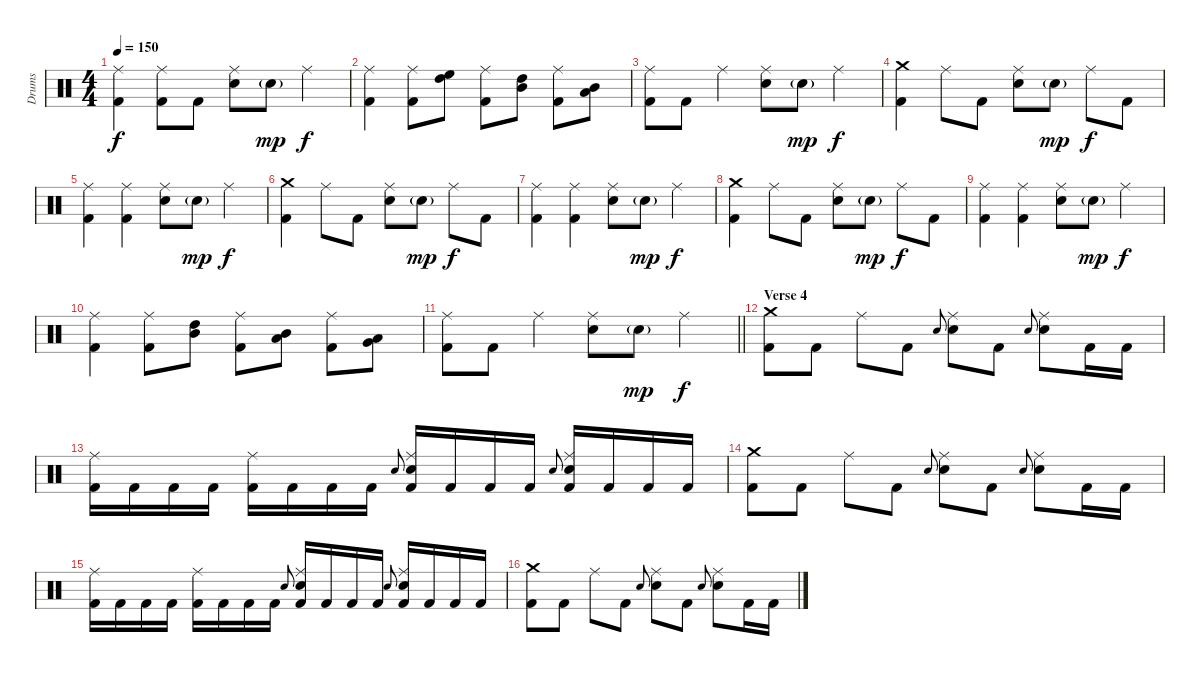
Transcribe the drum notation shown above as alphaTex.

\track ("Drums" "Drums") {instrument percussion}
\staff {score}
\articulation defaults
\ts (4 4)
\tempo 150
\clef neutral
\ks c
("Kick (hit) 2" "Ride (middle)").4{dy f} ("Kick (hit) 2" "Ride (middle)").8 "Kick (hit) 2".8 ("Snare (hit) 2" "Ride (middle)").8 "Snare (hit) 2"{g}.8{dy mp} "Ride (middle)".4{dy f} |
("Kick (hit) 2" "Ride (middle)").4 ("Kick (hit) 2" "Ride (middle)").8 ("High Floor Tom (hit)" "High Tom (hit)").8 ("Kick (hit) 2" "Ride (middle)").8 ("High Tom (hit)" "Mid Tom (hit)").8 ("Kick (hit) 2" "Ride (middle)").8 ("Mid Tom (hit)" "Low Tom (hit)").8 |
("Kick (hit) 2" "Ride (middle)").8 "Kick (hit) 2".8 "Ride (middle)".4 ("Snare (hit) 2" "Ride (middle)").8 "Snare (hit) 2"{g}.8{dy mp} "Ride (middle)".4{dy f} |
("Kick (hit) 2" "Crash medium (hit)").4 "Ride (middle)".8 "Kick (hit) 2".8 ("Snare (hit) 2" "Ride (middle)").8 "Snare (hit) 2"{g}.8{dy mp} "Ride (middle)".8{dy f} "Kick (hit) 2".8 |
("Kick (hit) 2" "Ride (middle)").4 ("Kick (hit) 2" "Ride (middle)").4 ("Snare (hit) 2" "Ride (middle)").8 "Snare (hit) 2"{g}.8{dy mp} "Ride (middle)".4{dy f} |
("Kick (hit) 2" "Crash medium (hit)").4 "Ride (middle)".8 "Kick (hit) 2".8 ("Snare (hit) 2" "Ride (middle)").8 "Snare (hit) 2"{g}.8{dy mp} "Ride (middle)".8{dy f} "Kick (hit) 2".8 |
("Kick (hit) 2" "Ride (middle)").4 ("Kick (hit) 2" "Ride (middle)").4 ("Snare (hit) 2" "Ride (middle)").8 "Snare (hit) 2"{g}.8{dy mp} "Ride (middle)".4{dy f} |
("Kick (hit) 2" "Crash medium (hit)").4 "Ride (middle)".8 "Kick (hit) 2".8 ("Snare (hit) 2" "Ride (middle)").8 "Snare (hit) 2"{g}.8{dy mp} "Ride (middle)".8{dy f} "Kick (hit) 2".8 |
("Kick (hit) 2" "Ride (middle)").4 ("Kick (hit) 2" "Ride (middle)").4 ("Snare (hit) 2" "Ride (middle)").8 "Snare (hit) 2"{g}.8{dy mp} "Ride (middle)".4{dy f} |
("Kick (hit) 2" "Ride (middle)").4 ("Kick (hit) 2" "Ride (middle)").8 ("High Tom (hit)" "Mid Tom (hit)").8 ("Kick (hit) 2" "Ride (middle)").8 ("Mid Tom (hit)" "Low Tom (hit)").8 ("Kick (hit) 2" "Ride (middle)").8 ("Low Tom (hit)" "Very Low Tom (hit)").8 |
\barLineRight lightlight
("Kick (hit) 2" "Ride (middle)").8 "Kick (hit) 2".8 "Ride (middle)".4 ("Snare (hit) 2" "Ride (middle)").8 "Snare (hit) 2"{g}.8{dy mp} "Ride (middle)".4{dy f} |
\section ("" "Verse 4")
("Kick (hit) 2" "Crash medium (hit)").8 "Kick (hit) 2".8 "Ride (middle)".8 "Kick (hit) 2".8 "Snare (hit) 2".8{gr onbeat} ("Snare (hit) 2" "Ride (middle)").8 "Kick (hit) 2".8 "Snare (hit) 2".8{gr onbeat} ("Snare (hit) 2" "Ride (middle)").8 "Kick (hit) 2".16 "Kick (hit) 2".16 |
("Kick (hit) 2" "Ride (middle)").16 "Kick (hit) 2".16 "Kick (hit) 2".16 "Kick (hit) 2".16 ("Kick (hit) 2" "Ride (middle)").16 "Kick (hit) 2".16 "Kick (hit) 2".16 "Kick (hit) 2".16 "Snare (hit) 2".8{gr onbeat} ("Kick (hit) 2" "Snare (hit) 2" "Ride (middle)").16 "Kick (hit) 2".16 "Kick (hit) 2".16 "Kick (hit) 2".16 "Snare (hit) 2".8{gr onbeat} ("Kick (hit) 2" "Snare (hit) 2" "Ride (middle)").16 "Kick (hit) 2".16 "Kick (hit) 2".16 "Kick (hit) 2".16 |
("Kick (hit) 2" "Crash medium (hit)").8 "Kick (hit) 2".8 "Ride (middle)".8 "Kick (hit) 2".8 "Snare (hit) 2".8{gr onbeat} ("Snare (hit) 2" "Ride (middle)").8 "Kick (hit) 2".8 "Snare (hit) 2".8{gr onbeat} ("Snare (hit) 2" "Ride (middle)").8 "Kick (hit) 2".16 "Kick (hit) 2".16 |
("Kick (hit) 2" "Ride (middle)").16 "Kick (hit) 2".16 "Kick (hit) 2".16 "Kick (hit) 2".16 ("Kick (hit) 2" "Ride (middle)").16 "Kick (hit) 2".16 "Kick (hit) 2".16 "Kick (hit) 2".16 "Snare (hit) 2".8{gr onbeat} ("Kick (hit) 2" "Snare (hit) 2" "Ride (middle)").16 "Kick (hit) 2".16 "Kick (hit) 2".16 "Kick (hit) 2".16 "Snare (hit) 2".8{gr onbeat} ("Kick (hit) 2" "Snare (hit) 2" "Ride (middle)").16 "Kick (hit) 2".16 "Kick (hit) 2".16 "Kick (hit) 2".16 |
("Kick (hit) 2" "Crash medium (hit)").8 "Kick (hit) 2".8 "Ride (middle)".8 "Kick (hit) 2".8 "Snare (hit) 2".8{gr onbeat} ("Snare (hit) 2" "Ride (middle)").8 "Kick (hit) 2".8 "Snare (hit) 2".8{gr onbeat} ("Snare (hit) 2" "Ride (middle)").8 "Kick (hit) 2".16 "Kick (hit) 2".16
